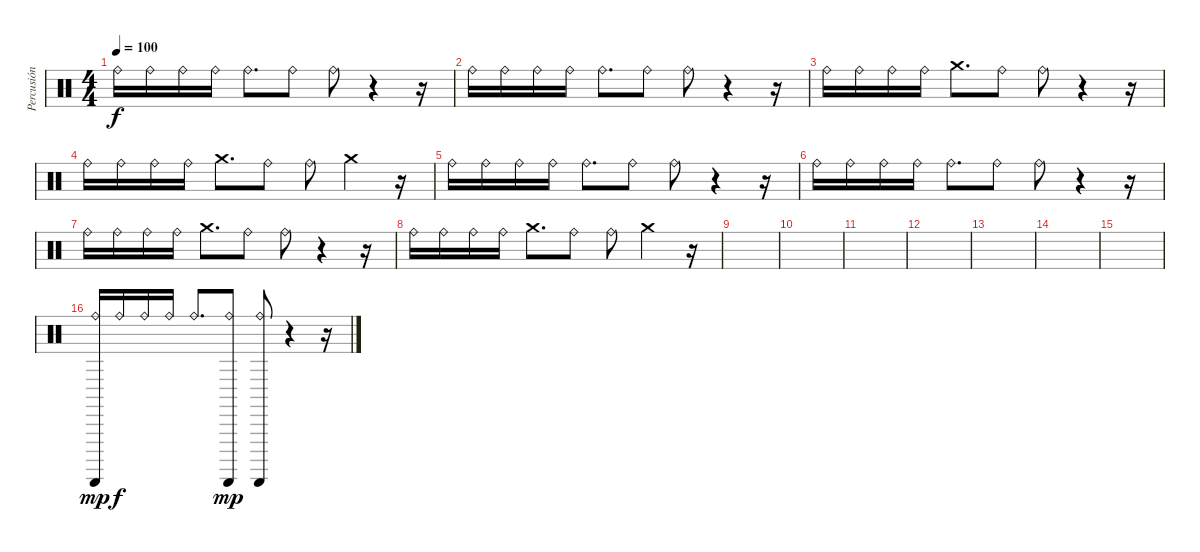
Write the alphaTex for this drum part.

\track ("Percusión" "Percusión") {instrument percussion}
\staff {score}
\articulation defaults
\ts (4 4)
\tempo 100
\clef neutral
\ks c "Ride (bell)".16{dy f} "Ride (bell)".16 "Ride (bell)".16 "Ride (bell)".16 "Ride (bell)".8{d} "Ride (bell)".8 "Ride (bell)".8
r.4 r.16 |
"Ride (bell)".16 "Ride (bell)".16 "Ride (bell)".16 "Ride (bell)".16 "Ride (bell)".8{d} "Ride (bell)".8 "Ride (bell)".8 r.4 r.16 |
"Ride (bell)".16 "Ride (bell)".16 "Ride (bell)".16 "Ride (bell)".16 "Crash medium (hit)".8{d} "Ride (bell)".8 "Ride (bell)".8 r.4 r.16 |
"Ride (bell)".16 "Ride (bell)".16 "Ride (bell)".16 "Ride (bell)".16 "Crash medium (hit)".8{d} "Ride (bell)".8 "Ride (bell)".8 "Crash medium (hit)".4 r.16 |
"Ride (bell)".16 "Ride (bell)".16 "Ride (bell)".16 "Ride (bell)".16 "Ride (bell)".8{d} "Ride (bell)".8 "Ride (bell)".8 r.4 r.16 |
"Ride (bell)".16 "Ride (bell)".16 "Ride (bell)".16 "Ride (bell)".16 "Ride (bell)".8{d} "Ride (bell)".8 "Ride (bell)".8 r.4 r.16 |
"Ride (bell)".16 "Ride (bell)".16 "Ride (bell)".16 "Ride (bell)".16 "Crash medium (hit)".8{d} "Ride (bell)".8 "Ride (bell)".8 r.4 r.16 |
"Ride (bell)".16 "Ride (bell)".16 "Ride (bell)".16 "Ride (bell)".16 "Crash medium (hit)".8{d} "Ride (bell)".8 "Ride (bell)".8 "Crash medium (hit)".4 r.16 |
|
|
|
|
|
|
|
("Ride (bell)" "Guiro (scrap-return)").16{dy mp} "Ride (bell)".16{dy f} "Ride (bell)".16 "Ride (bell)".16 "Ride (bell)".8{d} ("Ride (bell)" "Guiro (scrap-return)").8{dy mp} ("Ride (bell)" "Guiro (scrap-return)").8 r.4 r.16
